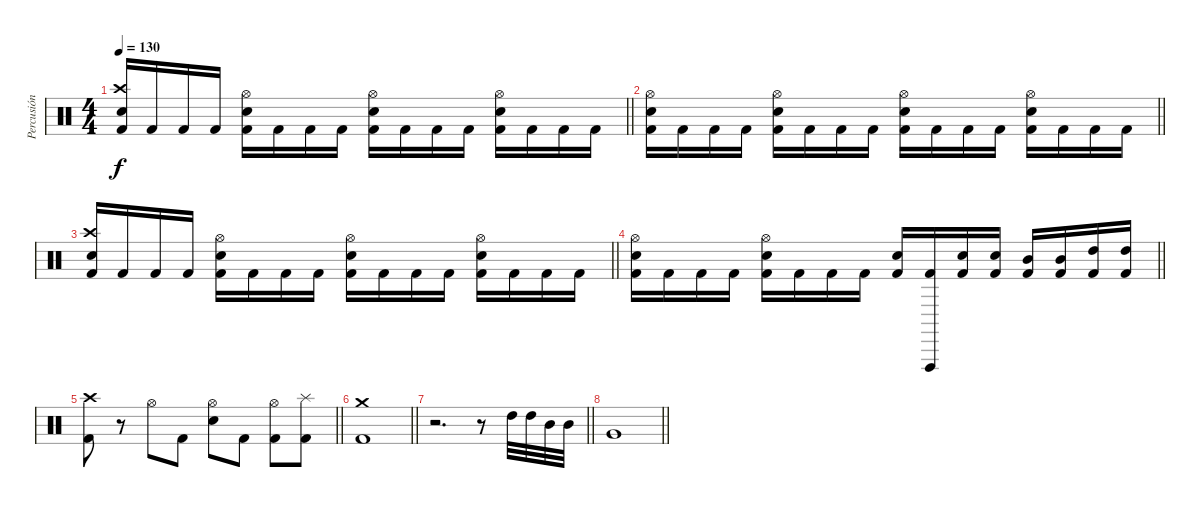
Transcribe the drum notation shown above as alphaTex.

\track ("Percusión" "Percusión") {mute instrument percussion}
\staff {score}
\articulation defaults
\ts (4 4)
\tempo 130
\clef neutral
\barLineRight lightlight
\ks c
("Electric Snare (hit)" "Crash high (hit)" "Kick (hit) 2").16{dy f} "Kick (hit) 2".16 "Kick (hit) 2".16 "Kick (hit) 2".16 ("Electric Snare (hit)" "Hi-Hat (open)" "Kick (hit) 2").16 "Kick (hit) 2".16 "Kick (hit) 2".16 "Kick (hit) 2".16 ("Kick (hit) 2" "Hi-Hat (open)" "Electric Snare (hit)").16 "Kick (hit) 2".16 "Kick (hit) 2".16 "Kick (hit) 2".16 ("Electric Snare (hit)" "Hi-Hat (open)" "Kick (hit) 2").16 "Kick (hit) 2".16 "Kick (hit) 2".16 "Kick (hit) 2".16 |
\barLineRight lightlight
("Hi-Hat (open)" "Electric Snare (hit)" "Kick (hit) 2").16 "Kick (hit) 2".16 "Kick (hit) 2".16 "Kick (hit) 2".16 ("Electric Snare (hit)" "Hi-Hat (open)" "Kick (hit) 2").16 "Kick (hit) 2".16 "Kick (hit) 2".16 "Kick (hit) 2".16 ("Kick (hit) 2" "Hi-Hat (open)" "Electric Snare (hit)").16 "Kick (hit) 2".16 "Kick (hit) 2".16 "Kick (hit) 2".16 ("Electric Snare (hit)" "Hi-Hat (open)" "Kick (hit) 2").16 "Kick (hit) 2".16 "Kick (hit) 2".16 "Kick (hit) 2".16 |
\barLineRight lightlight
("Electric Snare (hit)" "Crash high (hit)" "Kick (hit) 2").16 "Kick (hit) 2".16 "Kick (hit) 2".16 "Kick (hit) 2".16 ("Electric Snare (hit)" "Hi-Hat (open)" "Kick (hit) 2").16 "Kick (hit) 2".16 "Kick (hit) 2".16 "Kick (hit) 2".16 ("Kick (hit) 2" "Hi-Hat (open)" "Electric Snare (hit)").16 "Kick (hit) 2".16 "Kick (hit) 2".16 "Kick (hit) 2".16 ("Electric Snare (hit)" "Hi-Hat (open)" "Kick (hit) 2").16 "Kick (hit) 2".16 "Kick (hit) 2".16 "Kick (hit) 2".16 |
\barLineRight lightlight
("Hi-Hat (open)" "Electric Snare (hit)" "Kick (hit) 2").16 "Kick (hit) 2".16 "Kick (hit) 2".16 "Kick (hit) 2".16 ("Electric Snare (hit)" "Hi-Hat (open)" "Kick (hit) 2").16 "Kick (hit) 2".16 "Kick (hit) 2".16 "Kick (hit) 2".16 ("Kick (hit) 2" "Electric Snare (hit)").16 ("Kick (hit) 2" "Vibraslap (hit)").16 ("Kick (hit) 2" "Electric Snare (hit)").16 ("Kick (hit) 2" "Electric Snare (hit)").16 ("Mid Tom (hit)" "Kick (hit) 2").16 ("Kick (hit) 2" "Mid Tom (hit)").16 ("Kick (hit) 2" "High Tom (hit)").16 ("Kick (hit) 2" "High Tom (hit)").16 |
\barLineRight lightlight
("Kick (hit) 2" "Crash high (hit)").8 r.8 "Hi-Hat (open)".8 "Kick (hit) 2".8 ("Electric Snare (hit)" "Hi-Hat (open)").8 "Kick (hit) 2".8 ("Hi-Hat (open)" "Kick (hit) 2").8 ("Splash (hit)" "Kick (hit) 2").8 |
\barLineRight lightlight
("Crash medium (hit)" "Kick (hit) 2").1 |
\barLineRight lightlight
r.2{d} r.8 "High Tom (hit)".32 "High Tom (hit)".32 "Mid Tom (hit)".32 "Mid Tom (hit)".32 |
\barLineRight lightlight "Very Low Tom (hit)".1
